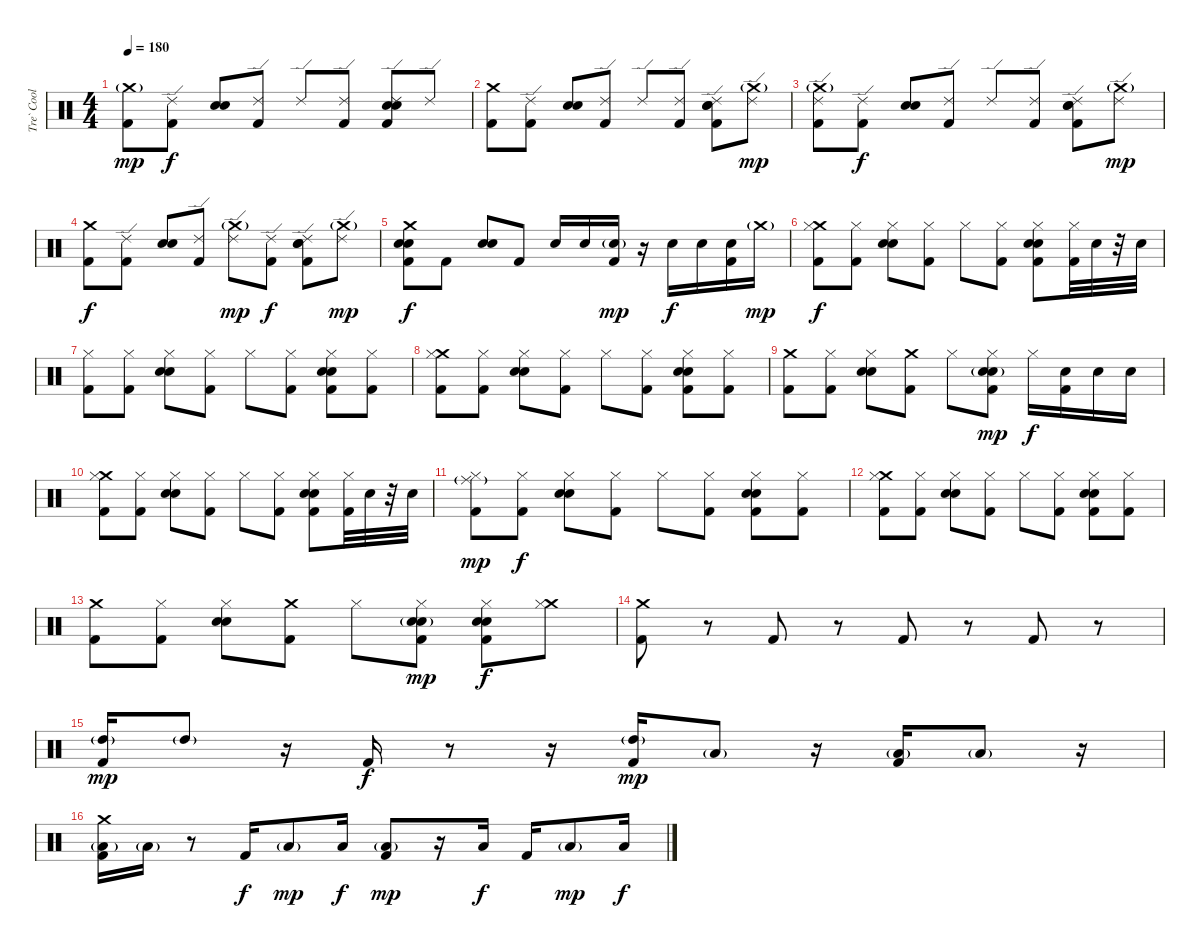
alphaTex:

\track ("Tre` Cool (Drums)" "Tre` Cool ") {instrument percussion}
\staff {score}
\articulation defaults
\ts (4 4)
\tempo 180
\clef neutral
\ks c
("Crash medium (hit)"{g} "Kick (hit) 2").8{dy mp} ("Ride (edge) 2" "Kick (hit) 2").8{dy f} ("Snare (hit) 2" "Electric Snare (hit)").8 ("Ride (edge) 2" "Kick (hit) 2").8 "Ride (edge) 2".8 ("Ride (edge) 2" "Kick (hit) 2").8 ("Ride (edge) 2" "Snare (hit) 2" "Electric Snare (hit)" "Kick (hit) 2").8 "Ride (edge) 2".8 |
("Crash medium (hit)" "Kick (hit) 2").8 ("Ride (edge) 2" "Kick (hit) 2").8 ("Snare (hit) 2" "Electric Snare (hit)").8 ("Ride (edge) 2" "Kick (hit) 2").8 "Ride (edge) 2".8 ("Ride (edge) 2" "Kick (hit) 2").8 ("Ride (edge) 2" "Snare (hit) 2" "Electric Snare (hit)" "Kick (hit) 2").8 ("Crash medium (hit)"{g} "Ride (edge) 2").8{dy mp} |
("Crash medium (hit)"{g} "Ride (edge) 2" "Kick (hit) 2").8 ("Ride (edge) 2" "Kick (hit) 2").8{dy f} ("Snare (hit) 2" "Electric Snare (hit)").8 ("Ride (edge) 2" "Kick (hit) 2").8 "Ride (edge) 2".8 ("Ride (edge) 2" "Kick (hit) 2").8 ("Ride (edge) 2" "Snare (hit) 2" "Electric Snare (hit)" "Kick (hit) 2").8 ("Crash medium (hit)"{g} "Ride (edge) 2").8{dy mp} |
("Crash medium (hit)" "Kick (hit) 2").8{dy f} ("Ride (edge) 2" "Kick (hit) 2").8 ("Snare (hit) 2" "Electric Snare (hit)").8 ("Ride (edge) 2" "Kick (hit) 2").8 ("Crash medium (hit)"{g} "Ride (edge) 2").8{dy mp} ("Ride (edge) 2" "Kick (hit) 2").8{dy f} ("Ride (edge) 2" "Snare (hit) 2" "Electric Snare (hit)" "Kick (hit) 2").8 ("Crash medium (hit)"{g} "Ride (edge) 2").8{dy mp} |
("Crash medium (hit)" "Snare (hit) 2" "Electric Snare (hit)" "Kick (hit) 2").8{dy f} "Kick (hit) 2".8 ("Snare (hit) 2" "Electric Snare (hit)").8 "Kick (hit) 2".8 "Snare (hit) 2".16 "Snare (hit) 2".16 ("Snare (hit) 2"{g} "Kick (hit) 2").16{dy mp} r.16 "Snare (hit) 2".16{dy f} "Snare (hit) 2".16 ("Snare (hit) 2" "Kick (hit) 2").16 "Crash medium (hit)"{g}.16{dy mp} |
("Crash medium (hit)" "Hi-Hat (closed)" "Kick (hit) 2").8{dy f} ("Hi-Hat (closed)" "Kick (hit) 2").8 ("Hi-Hat (closed)" "Snare (hit) 2" "Electric Snare (hit)").8 ("Hi-Hat (closed)" "Kick (hit) 2").8 "Hi-Hat (closed)".8 ("Hi-Hat (closed)" "Kick (hit) 2").8 ("Hi-Hat (closed)" "Snare (hit) 2" "Electric Snare (hit)" "Kick (hit) 2").8 ("Hi-Hat (closed)" "Kick (hit) 2").32 "Snare (hit) 2".32 r.32 "Snare (hit) 2".32 |
("Hi-Hat (closed)" "Kick (hit) 2").8 ("Hi-Hat (closed)" "Kick (hit) 2").8 ("Hi-Hat (closed)" "Snare (hit) 2" "Electric Snare (hit)").8 ("Hi-Hat (closed)" "Kick (hit) 2").8 "Hi-Hat (closed)".8 ("Hi-Hat (closed)" "Kick (hit) 2").8 ("Hi-Hat (closed)" "Snare (hit) 2" "Electric Snare (hit)" "Kick (hit) 2").8 ("Hi-Hat (closed)" "Kick (hit) 2").8 |
("Crash medium (hit)" "Hi-Hat (closed)" "Kick (hit) 2").8 ("Hi-Hat (closed)" "Kick (hit) 2").8 ("Hi-Hat (closed)" "Snare (hit) 2" "Electric Snare (hit)").8 ("Hi-Hat (closed)" "Kick (hit) 2").8 "Hi-Hat (closed)".8 ("Hi-Hat (closed)" "Kick (hit) 2").8 ("Hi-Hat (closed)" "Snare (hit) 2" "Electric Snare (hit)" "Kick (hit) 2").8 ("Hi-Hat (closed)" "Kick (hit) 2").8 |
("Crash medium (hit)" "Kick (hit) 2").8 ("Hi-Hat (closed)" "Kick (hit) 2").8 ("Hi-Hat (closed)" "Snare (hit) 2" "Electric Snare (hit)").8 ("Crash medium (hit)" "Kick (hit) 2").8 "Hi-Hat (closed)".8 ("Hi-Hat (closed)" "Snare (hit) 2"{g} "Electric Snare (hit)"{g} "Kick (hit) 2").8{dy mp} "Hi-Hat (closed)".16{dy f} ("Snare (hit) 2" "Kick (hit) 2").16 "Snare (hit) 2".16 "Snare (hit) 2".16 |
("Crash medium (hit)" "Hi-Hat (closed)" "Kick (hit) 2").8 ("Hi-Hat (closed)" "Kick (hit) 2").8 ("Hi-Hat (closed)" "Snare (hit) 2" "Electric Snare (hit)").8 ("Hi-Hat (closed)" "Kick (hit) 2").8 "Hi-Hat (closed)".8 ("Hi-Hat (closed)" "Kick (hit) 2").8 ("Hi-Hat (closed)" "Snare (hit) 2" "Electric Snare (hit)" "Kick (hit) 2").8 ("Hi-Hat (closed)" "Kick (hit) 2").32 "Snare (hit) 2".32 r.32 "Snare (hit) 2".32 |
("Ride (middle)"{g} "Hi-Hat (closed)" "Kick (hit) 2").8{dy mp} ("Hi-Hat (closed)" "Kick (hit) 2").8{dy f} ("Hi-Hat (closed)" "Snare (hit) 2" "Electric Snare (hit)").8 ("Hi-Hat (closed)" "Kick (hit) 2").8 "Hi-Hat (closed)".8 ("Hi-Hat (closed)" "Kick (hit) 2").8 ("Hi-Hat (closed)" "Snare (hit) 2" "Electric Snare (hit)" "Kick (hit) 2").8 ("Hi-Hat (closed)" "Kick (hit) 2").8 |
("Crash medium (hit)" "Hi-Hat (closed)" "Kick (hit) 2").8 ("Hi-Hat (closed)" "Kick (hit) 2").8 ("Hi-Hat (closed)" "Snare (hit) 2" "Electric Snare (hit)").8 ("Hi-Hat (closed)" "Kick (hit) 2").8 "Hi-Hat (closed)".8 ("Hi-Hat (closed)" "Kick (hit) 2").8 ("Hi-Hat (closed)" "Snare (hit) 2" "Electric Snare (hit)" "Kick (hit) 2").8 ("Hi-Hat (closed)" "Kick (hit) 2").8 |
("Crash medium (hit)" "Kick (hit) 2").8 ("Hi-Hat (closed)" "Kick (hit) 2").8 ("Hi-Hat (closed)" "Snare (hit) 2" "Electric Snare (hit)").8 ("Crash medium (hit)" "Kick (hit) 2").8 "Hi-Hat (closed)".8 ("Hi-Hat (closed)" "Snare (hit) 2"{g} "Electric Snare (hit)"{g} "Kick (hit) 2").8{dy mp} ("Hi-Hat (closed)" "Snare (hit) 2" "Electric Snare (hit)" "Kick (hit) 2").8{dy f} ("Crash medium (hit)" "Hi-Hat (closed)").8 |
("Crash medium (hit)" "Kick (hit) 2").8 r.8 "Kick (hit) 2".8 r.8 "Kick (hit) 2".8 r.8 "Kick (hit) 2".8 r.8 |
("High Tom (hit)"{g} "Kick (hit) 2").16{dy mp} "High Tom (hit)"{g}.8 r.16 "Kick (hit) 2".16{dy f} r.8 r.16 ("High Tom (hit)"{g} "Kick (hit) 2").16{dy mp} "Low Tom (hit)"{g}.8 r.16 ("Low Tom (hit)"{g} "Kick (hit) 2").16 "Low Tom (hit)"{g}.8 r.16 |
("Crash medium (hit)" "Low Tom (hit)"{g} "Kick (hit) 2").16 "Low Tom (hit)"{g}.16 r.8 "Kick (hit) 2".16{dy f} "Low Tom (hit)"{g}.8{dy mp} "Low Tom (hit)".16{dy f} ("Low Tom (hit)"{g} "Kick (hit) 2").8{dy mp} r.16 "Low Tom (hit)".16{dy f} "Kick (hit) 2".16 "Low Tom (hit)"{g}.8{dy mp} "Low Tom (hit)".16{dy f}
